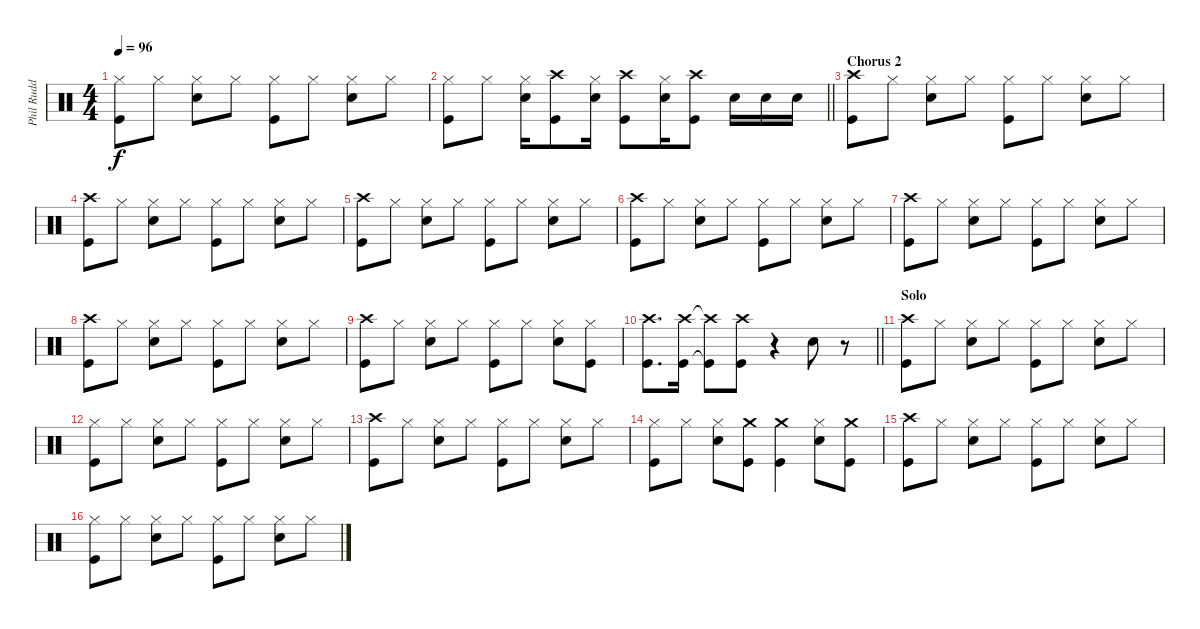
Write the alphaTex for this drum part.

\track ("Phil Rudd" "Phil Rudd") {instrument percussion}
\staff {score}
\articulation defaults
\ts (4 4)
\tempo 96
\clef neutral
\ks c
("Hi-Hat (closed)" "Kick (hit)").8{dy f} "Hi-Hat (closed)".8 ("Hi-Hat (closed)" "Electric Snare (hit)").8 "Hi-Hat (closed)".8 ("Hi-Hat (closed)" "Kick (hit)").8 "Hi-Hat (closed)".8 ("Hi-Hat (closed)" "Electric Snare (hit)").8 "Hi-Hat (closed)".8 |
\barLineRight lightlight
("Hi-Hat (closed)" "Kick (hit)").8 "Hi-Hat (closed)".8 ("Hi-Hat (closed)" "Electric Snare (hit)").16 ("Crash high (hit)" "Kick (hit)").8 ("Hi-Hat (closed)" "Electric Snare (hit)").16 ("Crash high (hit)" "Kick (hit)").8 ("Hi-Hat (closed)" "Electric Snare (hit)").16 ("Crash high (hit)" "Kick (hit)").8 "Electric Snare (hit)".16 "Electric Snare (hit)".16 "Electric Snare (hit)".16 |
\section ("" "Chorus 2")
("Crash high (hit)" "Kick (hit)").8 "Hi-Hat (closed)".8 ("Hi-Hat (closed)" "Electric Snare (hit)").8 "Hi-Hat (closed)".8 ("Hi-Hat (closed)" "Kick (hit)").8 "Hi-Hat (closed)".8 ("Hi-Hat (closed)" "Electric Snare (hit)").8 "Hi-Hat (closed)".8 |
("Crash high (hit)" "Kick (hit)").8 "Hi-Hat (closed)".8 ("Hi-Hat (closed)" "Electric Snare (hit)").8 "Hi-Hat (closed)".8 ("Hi-Hat (closed)" "Kick (hit)").8 "Hi-Hat (closed)".8 ("Hi-Hat (closed)" "Electric Snare (hit)").8 "Hi-Hat (closed)".8 |
("Crash high (hit)" "Kick (hit)").8 "Hi-Hat (closed)".8 ("Hi-Hat (closed)" "Electric Snare (hit)").8 "Hi-Hat (closed)".8 ("Hi-Hat (closed)" "Kick (hit)").8 "Hi-Hat (closed)".8 ("Hi-Hat (closed)" "Electric Snare (hit)").8 "Hi-Hat (closed)".8 |
("Crash high (hit)" "Kick (hit)").8 "Hi-Hat (closed)".8 ("Hi-Hat (closed)" "Electric Snare (hit)").8 "Hi-Hat (closed)".8 ("Hi-Hat (closed)" "Kick (hit)").8 "Hi-Hat (closed)".8 ("Hi-Hat (closed)" "Electric Snare (hit)").8 "Hi-Hat (closed)".8 |
("Crash high (hit)" "Kick (hit)").8 "Hi-Hat (closed)".8 ("Hi-Hat (closed)" "Electric Snare (hit)").8 "Hi-Hat (closed)".8 ("Hi-Hat (closed)" "Kick (hit)").8 "Hi-Hat (closed)".8 ("Hi-Hat (closed)" "Electric Snare (hit)").8 "Hi-Hat (closed)".8 |
("Crash high (hit)" "Kick (hit)").8 "Hi-Hat (closed)".8 ("Hi-Hat (closed)" "Electric Snare (hit)").8 "Hi-Hat (closed)".8 ("Hi-Hat (closed)" "Kick (hit)").8 "Hi-Hat (closed)".8 ("Hi-Hat (closed)" "Electric Snare (hit)").8 "Hi-Hat (closed)".8 |
("Crash high (hit)" "Kick (hit)").8 "Hi-Hat (closed)".8 ("Hi-Hat (closed)" "Electric Snare (hit)").8 "Hi-Hat (closed)".8 ("Hi-Hat (closed)" "Kick (hit)").8 "Hi-Hat (closed)".8 ("Hi-Hat (closed)" "Electric Snare (hit)").8 ("Hi-Hat (closed)" "Kick (hit)").8 |
\barLineRight lightlight
("Crash high (hit)" "Kick (hit)").8{d} ("Crash high (hit)" "Kick (hit)").16 ("Crash high (hit)"{t} "Kick (hit)"{t}).8 ("Crash high (hit)" "Kick (hit)").8 r.4 "Electric Snare (hit)".8 r.8 |
\section ("" "Solo")
("Crash high (hit)" "Kick (hit)").8 "Hi-Hat (closed)".8 ("Hi-Hat (closed)" "Electric Snare (hit)").8 "Hi-Hat (closed)".8 ("Hi-Hat (closed)" "Kick (hit)").8 "Hi-Hat (closed)".8 ("Hi-Hat (closed)" "Electric Snare (hit)").8 "Hi-Hat (closed)".8 |
("Hi-Hat (closed)" "Kick (hit)").8 "Hi-Hat (closed)".8 ("Hi-Hat (closed)" "Electric Snare (hit)").8 "Hi-Hat (closed)".8 ("Hi-Hat (closed)" "Kick (hit)").8 "Hi-Hat (closed)".8 ("Hi-Hat (closed)" "Electric Snare (hit)").8 "Hi-Hat (closed)".8 |
("Crash high (hit)" "Kick (hit)").8 "Hi-Hat (closed)".8 ("Hi-Hat (closed)" "Electric Snare (hit)").8 "Hi-Hat (closed)".8 ("Hi-Hat (closed)" "Kick (hit)").8 "Hi-Hat (closed)".8 ("Hi-Hat (closed)" "Electric Snare (hit)").8 "Hi-Hat (closed)".8 |
("Hi-Hat (closed)" "Kick (hit)").8 "Hi-Hat (closed)".8 ("Hi-Hat (closed)" "Electric Snare (hit)").8 ("Crash medium (hit)" "Kick (hit)").8 ("Crash medium (hit)" "Kick (hit)").4 ("Hi-Hat (closed)" "Electric Snare (hit)").8 ("Crash medium (hit)" "Kick (hit)").8 |
("Crash high (hit)" "Kick (hit)").8 "Hi-Hat (closed)".8 ("Hi-Hat (closed)" "Electric Snare (hit)").8 "Hi-Hat (closed)".8 ("Hi-Hat (closed)" "Kick (hit)").8 "Hi-Hat (closed)".8 ("Hi-Hat (closed)" "Electric Snare (hit)").8 "Hi-Hat (closed)".8 |
("Hi-Hat (closed)" "Kick (hit)").8 "Hi-Hat (closed)".8 ("Hi-Hat (closed)" "Electric Snare (hit)").8 "Hi-Hat (closed)".8 ("Hi-Hat (closed)" "Kick (hit)").8 "Hi-Hat (closed)".8 ("Hi-Hat (closed)" "Electric Snare (hit)").8 "Hi-Hat (closed)".8
